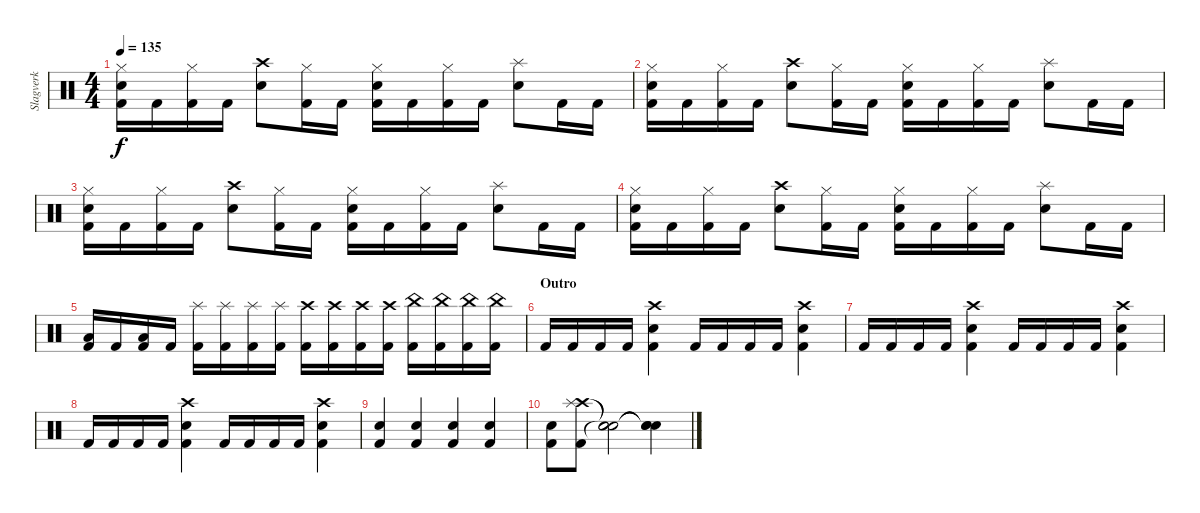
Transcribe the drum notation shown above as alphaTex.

\track ("Slagverk" "Slagverk") {instrument percussion}
\staff {score}
\articulation defaults
\ts (4 4)
\tempo 135
\clef neutral
\ks c
("Hi-Hat (closed)" "Snare (hit) 2" "Kick (hit) 2").16{dy f} "Kick (hit) 2".16 ("Hi-Hat (closed)" "Kick (hit) 2").16 "Kick (hit) 2".16 ("Crash high (hit)" "Snare (hit) 2").8 ("Hi-Hat (closed)" "Kick (hit) 2").16 "Kick (hit) 2".16 ("Hi-Hat (closed)" "Snare (hit) 2" "Kick (hit) 2").16 "Kick (hit) 2".16 ("Hi-Hat (closed)" "Kick (hit) 2").16 "Kick (hit) 2".16 ("Splash (hit)" "Snare (hit) 2").8 "Kick (hit) 2".16 "Kick (hit) 2".16 |
("Hi-Hat (closed)" "Snare (hit) 2" "Kick (hit) 2").16 "Kick (hit) 2".16 ("Hi-Hat (closed)" "Kick (hit) 2").16 "Kick (hit) 2".16 ("Crash high (hit)" "Snare (hit) 2").8 ("Hi-Hat (closed)" "Kick (hit) 2").16 "Kick (hit) 2".16 ("Hi-Hat (closed)" "Snare (hit) 2" "Kick (hit) 2").16 "Kick (hit) 2".16 ("Hi-Hat (closed)" "Kick (hit) 2").16 "Kick (hit) 2".16 ("Splash (hit)" "Snare (hit) 2").8 "Kick (hit) 2".16 "Kick (hit) 2".16 |
("Hi-Hat (closed)" "Snare (hit) 2" "Kick (hit) 2").16 "Kick (hit) 2".16 ("Hi-Hat (closed)" "Kick (hit) 2").16 "Kick (hit) 2".16 ("Crash high (hit)" "Snare (hit) 2").8 ("Hi-Hat (closed)" "Kick (hit) 2").16 "Kick (hit) 2".16 ("Hi-Hat (closed)" "Snare (hit) 2" "Kick (hit) 2").16 "Kick (hit) 2".16 ("Hi-Hat (closed)" "Kick (hit) 2").16 "Kick (hit) 2".16 ("Splash (hit)" "Snare (hit) 2").8 "Kick (hit) 2".16 "Kick (hit) 2".16 |
("Hi-Hat (closed)" "Snare (hit) 2" "Kick (hit) 2").16 "Kick (hit) 2".16 ("Hi-Hat (closed)" "Kick (hit) 2").16 "Kick (hit) 2".16 ("Crash high (hit)" "Snare (hit) 2").8 ("Hi-Hat (closed)" "Kick (hit) 2").16 "Kick (hit) 2".16 ("Hi-Hat (closed)" "Snare (hit) 2" "Kick (hit) 2").16 "Kick (hit) 2".16 ("Hi-Hat (closed)" "Kick (hit) 2").16 "Kick (hit) 2".16 ("Splash (hit)" "Snare (hit) 2").8 "Kick (hit) 2".16 "Kick (hit) 2".16 |
("Low Tom (hit)" "Kick (hit) 2").16 "Kick (hit) 2".16 ("Low Tom (hit)" "Kick (hit) 2").16 "Kick (hit) 2".16 ("Splash (hit)" "Kick (hit) 2").16 ("Splash (hit)" "Kick (hit) 2").16 ("Splash (hit)" "Kick (hit) 2").16 ("Splash (hit)" "Kick (hit) 2").16 ("Crash high (hit)" "Kick (hit) 2").16 ("Crash high (hit)" "Kick (hit) 2").16 ("Crash high (hit)" "Kick (hit) 2").16 ("Crash high (hit)" "Kick (hit) 2").16 ("China (hit)" "Kick (hit) 2").16 ("China (hit)" "Kick (hit) 2").16 ("China (hit)" "Kick (hit) 2").16 ("China (hit)" "Kick (hit) 2").16 |
\section ("" "Outro")
"Kick (hit) 2".16 "Kick (hit) 2".16 "Kick (hit) 2".16 "Kick (hit) 2".16 ("Snare (hit) 2" "Crash high (hit)" "Kick (hit) 2").4 "Kick (hit) 2".16 "Kick (hit) 2".16 "Kick (hit) 2".16 "Kick (hit) 2".16 ("Snare (hit) 2" "Crash high (hit)" "Kick (hit) 2").4 |
"Kick (hit) 2".16 "Kick (hit) 2".16 "Kick (hit) 2".16 "Kick (hit) 2".16 ("Snare (hit) 2" "Crash high (hit)" "Kick (hit) 2").4 "Kick (hit) 2".16 "Kick (hit) 2".16 "Kick (hit) 2".16 "Kick (hit) 2".16 ("Snare (hit) 2" "Crash high (hit)" "Kick (hit) 2").4 |
"Kick (hit) 2".16 "Kick (hit) 2".16 "Kick (hit) 2".16 "Kick (hit) 2".16 ("Snare (hit) 2" "Crash high (hit)" "Kick (hit) 2").4 "Kick (hit) 2".16 "Kick (hit) 2".16 "Kick (hit) 2".16 "Kick (hit) 2".16 ("Snare (hit) 2" "Crash high (hit)" "Kick (hit) 2").4 |
("Snare (hit) 2" "Kick (hit) 2").4 ("Snare (hit) 2" "Kick (hit) 2").4 ("Snare (hit) 2" "Kick (hit) 2").4 ("Snare (hit) 2" "Kick (hit) 2").4 |
("Snare (hit) 2" "Kick (hit) 2").8 ("Crash high (hit)" "Splash (hit)" "Kick (hit) 2").8 ("Snare (hit)"{t} "Snare (hit)"{t} "Snare (hit)"{t}).2 ("Snare (hit)"{t} "Snare (hit)"{t} "Snare (hit)"{t}).4
